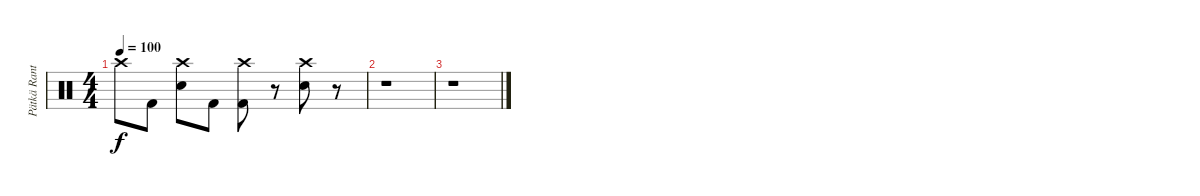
\track ("Pätkä Rantala (Drums)" "Pätkä Rant") {instrument percussion}
\staff {score}
\articulation defaults
\ts (4 4)
\tempo 100
\clef neutral
\ks c "Crash high (hit)".8{dy f} "Kick (hit) 2".8
("Crash high (hit)" "Snare (hit) 2").8 "Kick (hit) 2".8 ("Crash high (hit)" "Kick (hit) 2").8 r.8 ("Crash high (hit)" "Snare (hit) 2").8 r.8 |
r.1 |
r.1
